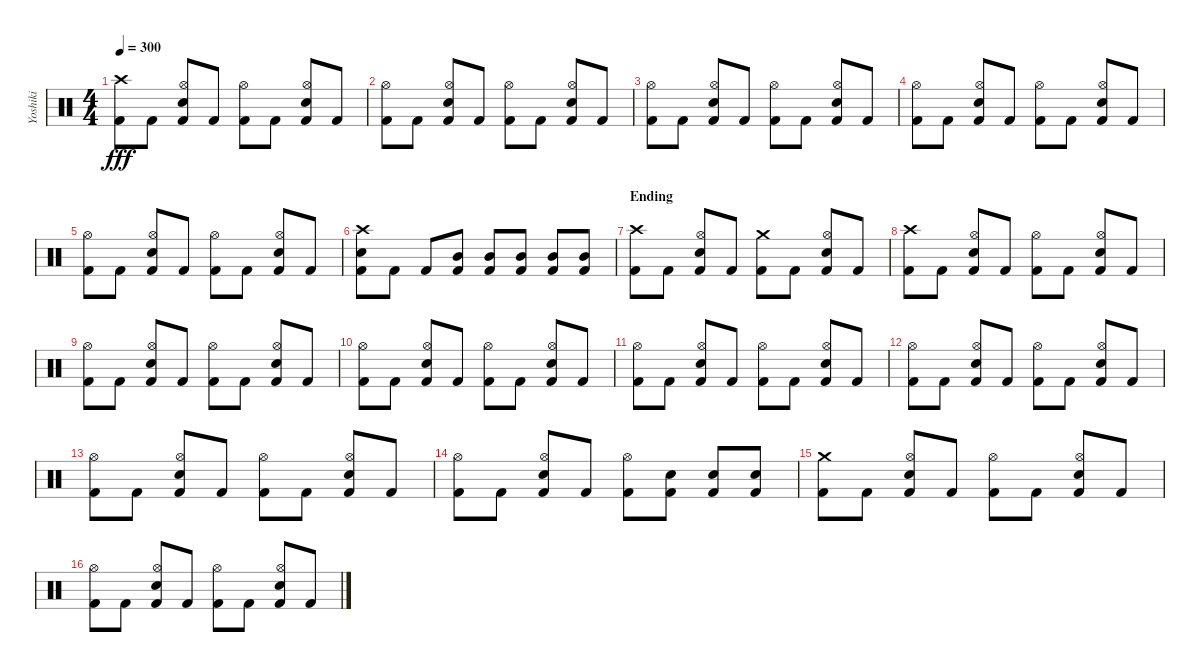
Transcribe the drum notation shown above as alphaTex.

\track ("Yoshiki" "Yoshiki") {instrument percussion}
\staff {score}
\articulation defaults
\ts (4 4)
\tempo 300
\clef neutral
\ks c
("Crash high (hit)" "Kick (hit) 2").8{dy fff} "Kick (hit) 2".8 ("Hi-Hat (open)" "Snare (hit) 2" "Kick (hit) 2").8 "Kick (hit) 2".8 ("Hi-Hat (open)" "Kick (hit) 2").8 "Kick (hit) 2".8 ("Hi-Hat (open)" "Snare (hit) 2" "Kick (hit) 2").8 "Kick (hit) 2".8 |
("Hi-Hat (open)" "Kick (hit) 2").8 "Kick (hit) 2".8 ("Hi-Hat (open)" "Snare (hit) 2" "Kick (hit) 2").8 "Kick (hit) 2".8 ("Hi-Hat (open)" "Kick (hit) 2").8 "Kick (hit) 2".8 ("Hi-Hat (open)" "Snare (hit) 2" "Kick (hit) 2").8 "Kick (hit) 2".8 |
("Hi-Hat (open)" "Kick (hit) 2").8 "Kick (hit) 2".8 ("Hi-Hat (open)" "Snare (hit) 2" "Kick (hit) 2").8 "Kick (hit) 2".8 ("Hi-Hat (open)" "Kick (hit) 2").8 "Kick (hit) 2".8 ("Hi-Hat (open)" "Snare (hit) 2" "Kick (hit) 2").8 "Kick (hit) 2".8 |
("Hi-Hat (open)" "Kick (hit) 2").8 "Kick (hit) 2".8 ("Hi-Hat (open)" "Snare (hit) 2" "Kick (hit) 2").8 "Kick (hit) 2".8 ("Hi-Hat (open)" "Kick (hit) 2").8 "Kick (hit) 2".8 ("Hi-Hat (open)" "Snare (hit) 2" "Kick (hit) 2").8 "Kick (hit) 2".8 |
("Hi-Hat (open)" "Kick (hit) 2").8 "Kick (hit) 2".8 ("Hi-Hat (open)" "Snare (hit) 2" "Kick (hit) 2").8 "Kick (hit) 2".8 ("Hi-Hat (open)" "Kick (hit) 2").8 "Kick (hit) 2".8 ("Hi-Hat (open)" "Snare (hit) 2" "Kick (hit) 2").8 "Kick (hit) 2".8 |
("Crash high (hit)" "Snare (hit) 2" "Kick (hit) 2").8 "Kick (hit) 2".8 "Kick (hit) 2".8 ("Mid Tom (hit)" "Kick (hit) 2").8 ("Mid Tom (hit)" "Kick (hit) 2").8 ("Mid Tom (hit)" "Kick (hit) 2").8 ("Mid Tom (hit)" "Kick (hit) 2").8 ("Mid Tom (hit)" "Kick (hit) 2").8 |
\section ("" "Ending")
("Crash high (hit)" "Kick (hit) 2").8 "Kick (hit) 2".8 ("Hi-Hat (open)" "Snare (hit) 2" "Kick (hit) 2").8 "Kick (hit) 2".8 ("Crash medium (hit)" "Kick (hit) 2").8 "Kick (hit) 2".8 ("Hi-Hat (open)" "Snare (hit) 2" "Kick (hit) 2").8 "Kick (hit) 2".8 |
("Crash high (hit)" "Kick (hit) 2").8 "Kick (hit) 2".8 ("Hi-Hat (open)" "Snare (hit) 2" "Kick (hit) 2").8 "Kick (hit) 2".8 ("Hi-Hat (open)" "Kick (hit) 2").8 "Kick (hit) 2".8 ("Hi-Hat (open)" "Snare (hit) 2" "Kick (hit) 2").8 "Kick (hit) 2".8 |
("Hi-Hat (open)" "Kick (hit) 2").8 "Kick (hit) 2".8 ("Hi-Hat (open)" "Snare (hit) 2" "Kick (hit) 2").8 "Kick (hit) 2".8 ("Hi-Hat (open)" "Kick (hit) 2").8 "Kick (hit) 2".8 ("Hi-Hat (open)" "Snare (hit) 2" "Kick (hit) 2").8 "Kick (hit) 2".8 |
("Hi-Hat (open)" "Kick (hit) 2").8 "Kick (hit) 2".8 ("Hi-Hat (open)" "Snare (hit) 2" "Kick (hit) 2").8 "Kick (hit) 2".8 ("Hi-Hat (open)" "Kick (hit) 2").8 "Kick (hit) 2".8 ("Hi-Hat (open)" "Snare (hit) 2" "Kick (hit) 2").8 "Kick (hit) 2".8 |
("Hi-Hat (open)" "Kick (hit) 2").8 "Kick (hit) 2".8 ("Hi-Hat (open)" "Snare (hit) 2" "Kick (hit) 2").8 "Kick (hit) 2".8 ("Hi-Hat (open)" "Kick (hit) 2").8 "Kick (hit) 2".8 ("Hi-Hat (open)" "Snare (hit) 2" "Kick (hit) 2").8 "Kick (hit) 2".8 |
("Hi-Hat (open)" "Kick (hit) 2").8 "Kick (hit) 2".8 ("Hi-Hat (open)" "Snare (hit) 2" "Kick (hit) 2").8 "Kick (hit) 2".8 ("Hi-Hat (open)" "Kick (hit) 2").8 "Kick (hit) 2".8 ("Hi-Hat (open)" "Snare (hit) 2" "Kick (hit) 2").8 "Kick (hit) 2".8 |
("Hi-Hat (open)" "Kick (hit) 2").8 "Kick (hit) 2".8 ("Hi-Hat (open)" "Snare (hit) 2" "Kick (hit) 2").8 "Kick (hit) 2".8 ("Hi-Hat (open)" "Kick (hit) 2").8 "Kick (hit) 2".8 ("Hi-Hat (open)" "Snare (hit) 2" "Kick (hit) 2").8 "Kick (hit) 2".8 |
("Hi-Hat (open)" "Kick (hit) 2").8 "Kick (hit) 2".8 ("Hi-Hat (open)" "Snare (hit) 2" "Kick (hit) 2").8 "Kick (hit) 2".8 ("Hi-Hat (open)" "Kick (hit) 2").8 ("Snare (hit) 2" "Kick (hit) 2").8 ("Snare (hit) 2" "Kick (hit) 2").8 ("Snare (hit) 2" "Kick (hit) 2").8 |
("Crash medium (hit)" "Kick (hit) 2").8 "Kick (hit) 2".8 ("Hi-Hat (open)" "Snare (hit) 2" "Kick (hit) 2").8 "Kick (hit) 2".8 ("Hi-Hat (open)" "Kick (hit) 2").8 "Kick (hit) 2".8 ("Hi-Hat (open)" "Snare (hit) 2" "Kick (hit) 2").8 "Kick (hit) 2".8 |
("Hi-Hat (open)" "Kick (hit) 2").8 "Kick (hit) 2".8 ("Hi-Hat (open)" "Snare (hit) 2" "Kick (hit) 2").8 "Kick (hit) 2".8 ("Hi-Hat (open)" "Kick (hit) 2").8 "Kick (hit) 2".8 ("Hi-Hat (open)" "Snare (hit) 2" "Kick (hit) 2").8 "Kick (hit) 2".8
